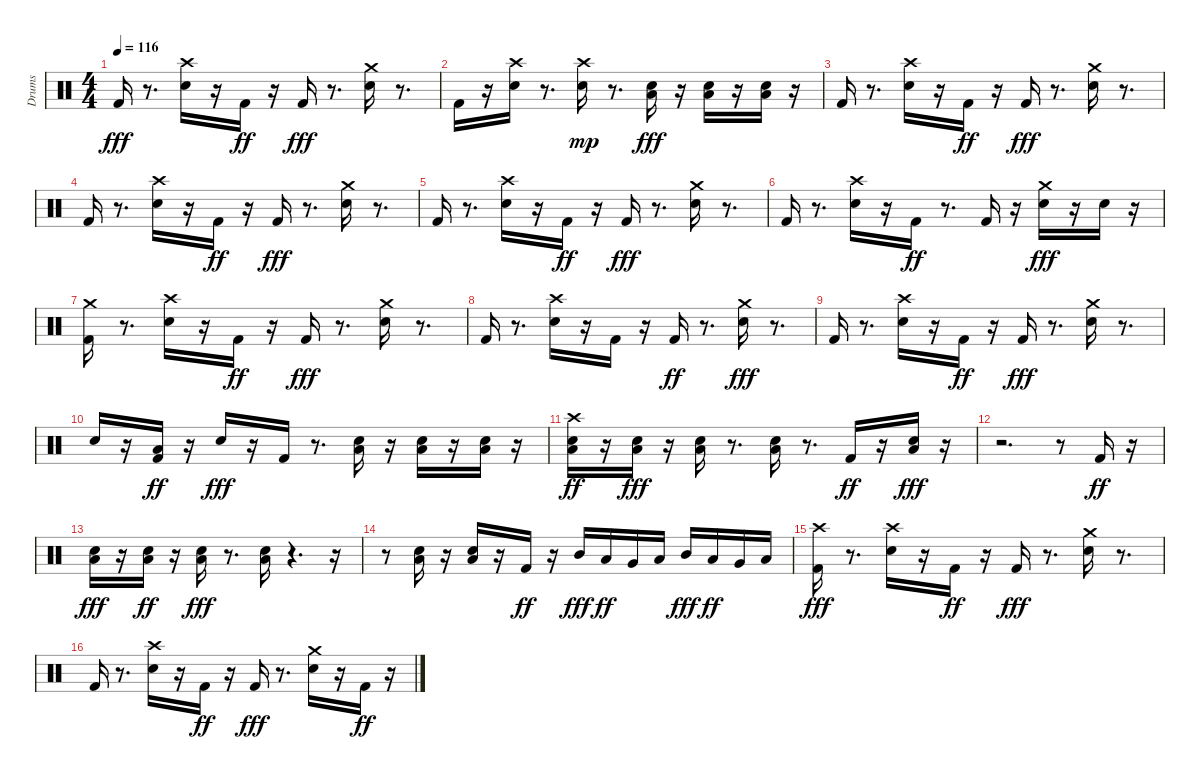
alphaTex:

\track ("Drums" "Drums") {instrument percussion}
\staff {score}
\articulation defaults
\ts (4 4)
\tempo 116
\clef neutral
\ks c "Kick (hit) 2".16{dy fff}
r.8{d} ("Crash high (hit)" "Snare (hit) 2").16 r.16 "Kick (hit) 2".16{dy ff} r.16 "Kick (hit) 2".16{dy fff} r.8{d} ("Crash medium (hit)" "Snare (hit) 2").16 r.8{d} |
"Kick (hit) 2".16 r.16 ("Crash high (hit)" "Snare (hit) 2").16 r.8{d} ("Snare (hit) 2" "Crash high (hit)").16{dy mp} r.8{d} ("Low Tom (hit)" "Snare (hit) 2").16{dy fff} r.16 ("Low Tom (hit)" "Snare (hit) 2").16 r.16 ("Low Tom (hit)" "Snare (hit) 2").16 r.16 |
"Kick (hit) 2".16 r.8{d} ("Crash high (hit)" "Snare (hit) 2").16 r.16 "Kick (hit) 2".16{dy ff} r.16 "Kick (hit) 2".16{dy fff} r.8{d} ("Crash medium (hit)" "Snare (hit) 2").16 r.8{d} |
"Kick (hit) 2".16 r.8{d} ("Crash high (hit)" "Snare (hit) 2").16 r.16 "Kick (hit) 2".16{dy ff} r.16 "Kick (hit) 2".16{dy fff} r.8{d} ("Crash medium (hit)" "Snare (hit) 2").16 r.8{d} |
"Kick (hit) 2".16 r.8{d} ("Crash high (hit)" "Snare (hit) 2").16 r.16 "Kick (hit) 2".16{dy ff} r.16 "Kick (hit) 2".16{dy fff} r.8{d} ("Crash medium (hit)" "Snare (hit) 2").16 r.8{d} |
"Kick (hit) 2".16 r.8{d} ("Crash high (hit)" "Snare (hit) 2").16 r.16 "Kick (hit) 2".16{dy ff} r.8{d} "Kick (hit) 2".16 r.16 ("Crash medium (hit)" "Snare (hit) 2").16{dy fff} r.16 "Snare (hit) 2".16 r.16 |
("Crash medium (hit)" "Kick (hit) 2").16 r.8{d} ("Crash high (hit)" "Snare (hit) 2").16 r.16 "Kick (hit) 2".16{dy ff} r.16 "Kick (hit) 2".16{dy fff} r.8{d} ("Crash medium (hit)" "Snare (hit) 2").16 r.8{d} |
"Kick (hit) 2".16 r.8{d} ("Crash high (hit)" "Snare (hit) 2").16 r.16 "Kick (hit) 2".16 r.16 "Kick (hit) 2".16{dy ff} r.8{d} ("Crash medium (hit)" "Snare (hit) 2").16{dy fff} r.8{d} |
"Kick (hit) 2".16 r.8{d} ("Crash high (hit)" "Snare (hit) 2").16 r.16 "Kick (hit) 2".16{dy ff} r.16 "Kick (hit) 2".16{dy fff} r.8{d} ("Crash medium (hit)" "Snare (hit) 2").16 r.8{d} |
"Snare (hit) 2".16 r.16 ("Low Tom (hit)" "Kick (hit) 2").16{dy ff} r.16 "Snare (hit) 2".16{dy fff} r.16 "Kick (hit) 2".16 r.8{d} ("Low Tom (hit)" "Snare (hit) 2").16 r.16 ("Low Tom (hit)" "Snare (hit) 2").16 r.16 ("Low Tom (hit)" "Snare (hit) 2").16 r.16 |
("Crash high (hit)" "Low Tom (hit)" "Snare (hit) 2").16{dy ff} r.16 ("Low Tom (hit)" "Snare (hit) 2").16{dy fff} r.16 ("Low Tom (hit)" "Snare (hit) 2").16 r.8{d} ("Low Tom (hit)" "Snare (hit) 2").16 r.8{d} "Kick (hit) 2".16{dy ff} r.16 ("Low Tom (hit)" "Snare (hit) 2").16{dy fff} r.16 |
r.2{d} r.8 "Kick (hit) 2".16{dy ff} r.16 |
("Low Tom (hit)" "Snare (hit) 2").16{dy fff} r.16 ("Low Tom (hit)" "Snare (hit) 2").16{dy ff} r.16 ("Low Tom (hit)" "Snare (hit) 2").16{dy fff} r.8{d} ("Low Tom (hit)" "Snare (hit) 2").16 r.4{d} r.16 |
r.8 ("Low Tom (hit)" "Snare (hit) 2").16 r.16 ("Low Tom (hit)" "Snare (hit) 2").16 r.16 "Kick (hit) 2".16{dy ff} r.16 "Mid Tom (hit)".16{dy fff} "Low Tom (hit)".16{dy ff} "Very Low Tom (hit)".16 "Low Floor Tom (hit)".16 "Mid Tom (hit)".16{dy fff} "Low Tom (hit)".16{dy ff} "Very Low Tom (hit)".16 "Low Floor Tom (hit)".16 |
("Crash high (hit)" "Kick (hit) 2").16{dy fff} r.8{d} ("Crash high (hit)" "Snare (hit) 2").16 r.16 "Kick (hit) 2".16{dy ff} r.16 "Kick (hit) 2".16{dy fff} r.8{d} ("Crash medium (hit)" "Snare (hit) 2").16 r.8{d} |
"Kick (hit) 2".16 r.8{d} ("Crash high (hit)" "Snare (hit) 2").16 r.16 "Kick (hit) 2".16{dy ff} r.16 "Kick (hit) 2".16{dy fff} r.8{d} ("Crash medium (hit)" "Snare (hit) 2").16 r.16 "Kick (hit) 2".16{dy ff} r.16
